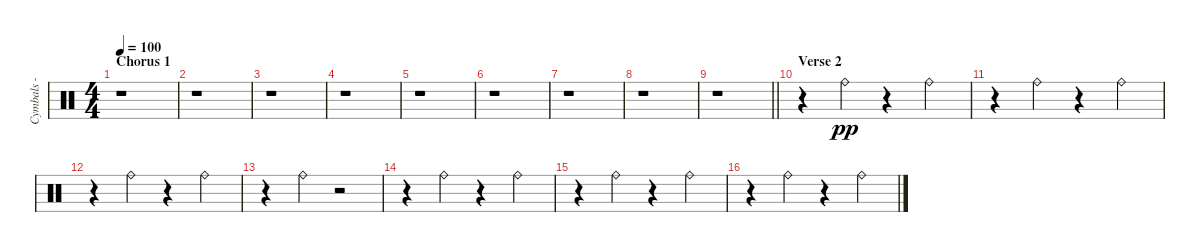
\track ("Cymbals - ride" "Cymbals - ") {instrument percussion}
\staff {score}
\articulation defaults
\ts (4 4)
\section ("" "Chorus 1")
\tempo 100
\clef neutral
\ks c
r.1{dy pp} |
r.1 |
r.1 |
r.1 |
r.1 |
r.1 |
r.1 |
r.1 |
\barLineRight lightlight
r.1 |
\section ("" "Verse 2")
r.4 "Ride (bell)".4 r.4 "Ride (bell)".4 |
r.4 "Ride (bell)".4 r.4 "Ride (bell)".4 |
r.4 "Ride (bell)".4 r.4 "Ride (bell)".4 |
r.4 "Ride (bell)".4 r.2 |
r.4 "Ride (bell)".4 r.4 "Ride (bell)".4 |
r.4 "Ride (bell)".4 r.4 "Ride (bell)".4 |
r.4 "Ride (bell)".4 r.4 "Ride (bell)".4
